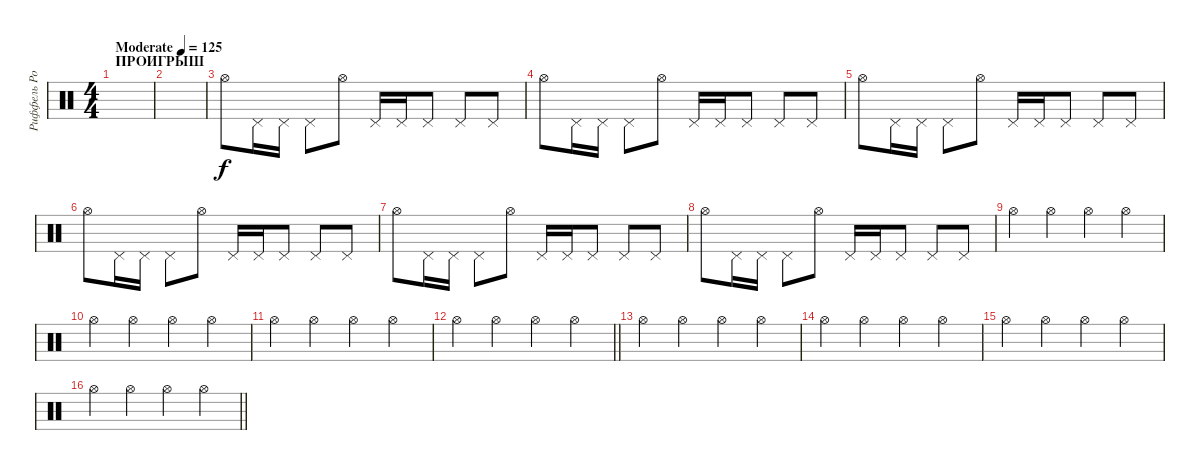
\track ("Риффель Роман(хэты)" "Риффель Ро") {instrument percussion}
\staff {score}
\articulation defaults
\ts (4 4)
\section ("" "ПРОИГРЫШ")
\tempo (125 "Moderate")
\clef neutral
\ks c
|
|
"Hi-Hat (open)".8 "Pedal Hi-Hat (hit)".16 "Pedal Hi-Hat (hit)".16 "Pedal Hi-Hat (hit)".8 "Hi-Hat (open)".8 "Pedal Hi-Hat (hit)".16 "Pedal Hi-Hat (hit)".16 "Pedal Hi-Hat (hit)".8 "Pedal Hi-Hat (hit)".8 "Pedal Hi-Hat (hit)".8 |
"Hi-Hat (open)".8 "Pedal Hi-Hat (hit)".16 "Pedal Hi-Hat (hit)".16 "Pedal Hi-Hat (hit)".8 "Hi-Hat (open)".8 "Pedal Hi-Hat (hit)".16 "Pedal Hi-Hat (hit)".16 "Pedal Hi-Hat (hit)".8 "Pedal Hi-Hat (hit)".8 "Pedal Hi-Hat (hit)".8 |
"Hi-Hat (open)".8 "Pedal Hi-Hat (hit)".16 "Pedal Hi-Hat (hit)".16 "Pedal Hi-Hat (hit)".8 "Hi-Hat (open)".8 "Pedal Hi-Hat (hit)".16 "Pedal Hi-Hat (hit)".16 "Pedal Hi-Hat (hit)".8 "Pedal Hi-Hat (hit)".8 "Pedal Hi-Hat (hit)".8 |
"Hi-Hat (open)".8 "Pedal Hi-Hat (hit)".16 "Pedal Hi-Hat (hit)".16 "Pedal Hi-Hat (hit)".8 "Hi-Hat (open)".8 "Pedal Hi-Hat (hit)".16 "Pedal Hi-Hat (hit)".16 "Pedal Hi-Hat (hit)".8 "Pedal Hi-Hat (hit)".8 "Pedal Hi-Hat (hit)".8 |
"Hi-Hat (open)".8 "Pedal Hi-Hat (hit)".16 "Pedal Hi-Hat (hit)".16 "Pedal Hi-Hat (hit)".8 "Hi-Hat (open)".8 "Pedal Hi-Hat (hit)".16 "Pedal Hi-Hat (hit)".16 "Pedal Hi-Hat (hit)".8 "Pedal Hi-Hat (hit)".8 "Pedal Hi-Hat (hit)".8 |
"Hi-Hat (open)".8 "Pedal Hi-Hat (hit)".16 "Pedal Hi-Hat (hit)".16 "Pedal Hi-Hat (hit)".8 "Hi-Hat (open)".8 "Pedal Hi-Hat (hit)".16 "Pedal Hi-Hat (hit)".16 "Pedal Hi-Hat (hit)".8 "Pedal Hi-Hat (hit)".8 "Pedal Hi-Hat (hit)".8 |
"Hi-Hat (open)".4 "Hi-Hat (open)".4 "Hi-Hat (open)".4 "Hi-Hat (open)".4 |
"Hi-Hat (open)".4 "Hi-Hat (open)".4 "Hi-Hat (open)".4 "Hi-Hat (open)".4 |
"Hi-Hat (open)".4 "Hi-Hat (open)".4 "Hi-Hat (open)".4 "Hi-Hat (open)".4 |
\barLineRight lightlight "Hi-Hat (open)".4 "Hi-Hat (open)".4 "Hi-Hat (open)".4 "Hi-Hat (open)".4
|
"Hi-Hat (open)".4 "Hi-Hat (open)".4 "Hi-Hat (open)".4 "Hi-Hat (open)".4 |
"Hi-Hat (open)".4 "Hi-Hat (open)".4 "Hi-Hat (open)".4 "Hi-Hat (open)".4 |
"Hi-Hat (open)".4 "Hi-Hat (open)".4 "Hi-Hat (open)".4 "Hi-Hat (open)".4 |
\barLineRight lightlight "Hi-Hat (open)".4 "Hi-Hat (open)".4 "Hi-Hat (open)".4 "Hi-Hat (open)".4
